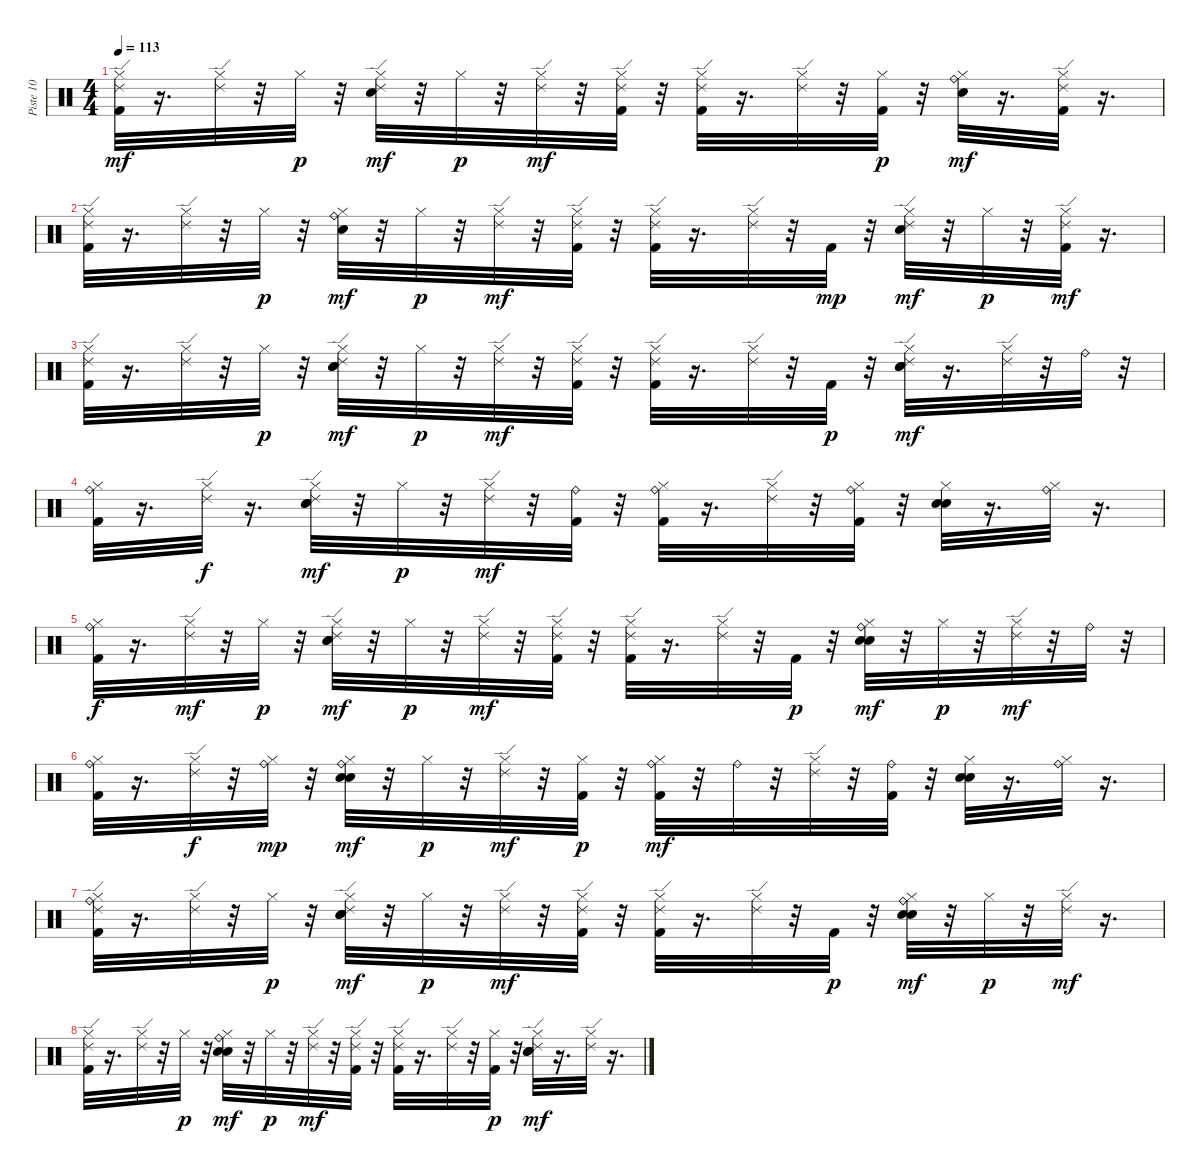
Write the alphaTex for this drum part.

\track ("Piste 10" "Piste 10") {instrument percussion}
\staff {score}
\articulation defaults
\ts (4 4)
\tempo 113
\clef neutral
\ks c
("Kick (hit) 2" "Hi-Hat (closed)" "Ride (edge) 2").32{dy mf} r.16{d} ("Hi-Hat (closed)" "Ride (edge) 2").32 r.32 "Hi-Hat (closed)".32{dy p} r.32 ("Electric Snare (hit)" "Hi-Hat (closed)" "Ride (edge) 2").32{dy mf} r.32 "Hi-Hat (closed)".32{dy p} r.32 ("Hi-Hat (closed)" "Ride (edge) 2").32{dy mf} r.32 ("Kick (hit) 2" "Hi-Hat (closed)" "Ride (edge) 2").32 r.32 ("Kick (hit) 2" "Hi-Hat (closed)" "Ride (edge) 2").32 r.16{d} ("Hi-Hat (closed)" "Ride (edge) 2").32 r.32 ("Kick (hit) 2" "Hi-Hat (closed)").32{dy p} r.32 ("Electric Snare (hit)" "Hi-Hat (closed)" "Ride (bell)").32{dy mf} r.16{d} ("Kick (hit) 2" "Hi-Hat (closed)" "Ride (edge) 2").32 r.16{d} |
("Kick (hit) 2" "Hi-Hat (closed)" "Ride (edge) 2").32 r.16{d} ("Hi-Hat (closed)" "Ride (edge) 2").32 r.32 "Hi-Hat (closed)".32{dy p} r.32 ("Electric Snare (hit)" "Hi-Hat (closed)" "Ride (bell)").32{dy mf} r.32 "Hi-Hat (closed)".32{dy p} r.32 ("Hi-Hat (closed)" "Ride (edge) 2").32{dy mf} r.32 ("Kick (hit) 2" "Hi-Hat (closed)" "Ride (edge) 2").32 r.32 ("Kick (hit) 2" "Hi-Hat (closed)" "Ride (edge) 2").32 r.16{d} ("Hi-Hat (closed)" "Ride (edge) 2").32 r.32 "Kick (hit) 2".32{dy mp} r.32 ("Electric Snare (hit)" "Hi-Hat (closed)" "Ride (edge) 2").32{dy mf} r.32 "Hi-Hat (closed)".32{dy p} r.32 ("Kick (hit) 2" "Hi-Hat (closed)" "Ride (edge) 2").32{dy mf} r.16{d} |
("Kick (hit) 2" "Hi-Hat (closed)" "Ride (edge) 2").32 r.16{d} ("Hi-Hat (closed)" "Ride (edge) 2").32 r.32 "Hi-Hat (closed)".32{dy p} r.32 ("Hand Clap (hit)" "Electric Snare (hit)" "Hi-Hat (closed)" "Ride (edge) 2").32{dy mf} r.32 "Hi-Hat (closed)".32{dy p} r.32 ("Hi-Hat (closed)" "Ride (edge) 2").32{dy mf} r.32 ("Kick (hit) 2" "Hi-Hat (closed)" "Ride (edge) 2").32 r.32 ("Kick (hit) 2" "Hi-Hat (closed)" "Ride (edge) 2").32 r.16{d} ("Hi-Hat (closed)" "Ride (edge) 2").32 r.32 "Kick (hit) 2".32{dy p} r.32 ("Hand Clap (hit)" "Electric Snare (hit)" "Hi-Hat (closed)" "Ride (edge) 2").32{dy mf} r.16{d} ("Hi-Hat (closed)" "Ride (edge) 2").32 r.32 "Ride (bell)".32 r.32 |
("Kick (hit) 2" "Hi-Hat (closed)" "Ride (bell)").32 r.16{d} ("Hi-Hat (closed)" "Ride (edge) 2").32{dy f} r.16{d} ("Hand Clap (hit)" "Electric Snare (hit)" "Hi-Hat (closed)" "Ride (edge) 2").32{dy mf} r.32 "Hi-Hat (closed)".32{dy p} r.32 ("Hi-Hat (closed)" "Ride (edge) 2").32{dy mf} r.32 ("Kick (hit) 2" "Ride (bell)").32 r.32 ("Kick (hit) 2" "Hi-Hat (closed)" "Ride (bell)").32 r.16{d} ("Hi-Hat (closed)" "Ride (edge) 2").32 r.32 ("Kick (hit) 2" "Hi-Hat (closed)" "Ride (bell)").32 r.32 ("Hand Clap (hit)" "Electric Snare (hit)" "Hi-Hat (closed)").32 r.16{d} ("Hi-Hat (closed)" "Ride (bell)").32 r.16{d} |
("Kick (hit) 2" "Hi-Hat (closed)" "Ride (bell)").32{dy f} r.16{d} ("Hi-Hat (closed)" "Ride (edge) 2").32{dy mf} r.32 "Hi-Hat (closed)".32{dy p} r.32 ("Hand Clap (hit)" "Electric Snare (hit)" "Hi-Hat (closed)" "Ride (edge) 2").32{dy mf} r.32 "Hi-Hat (closed)".32{dy p} r.32 ("Hi-Hat (closed)" "Ride (edge) 2").32{dy mf} r.32 ("Kick (hit) 2" "Hi-Hat (closed)" "Ride (edge) 2").32 r.32 ("Kick (hit) 2" "Hi-Hat (closed)" "Ride (edge) 2").32 r.16{d} ("Hi-Hat (closed)" "Ride (edge) 2").32 r.32 "Kick (hit) 2".32{dy p} r.32 ("Hand Clap (hit)" "Electric Snare (hit)" "Hi-Hat (closed)" "Ride (bell)").32{dy mf} r.32 "Hi-Hat (closed)".32{dy p} r.32 ("Hi-Hat (closed)" "Ride (edge) 2").32{dy mf} r.32 "Ride (bell)".32 r.32 |
("Kick (hit) 2" "Hi-Hat (closed)" "Ride (bell)").32 r.16{d} ("Hi-Hat (closed)" "Ride (edge) 2").32{dy f} r.32 ("Hi-Hat (closed)" "Ride (bell)").32{dy mp} r.32 ("Hand Clap (hit)" "Electric Snare (hit)" "Hi-Hat (closed)" "Ride (bell)").32{dy mf} r.32 "Hi-Hat (closed)".32{dy p} r.32 ("Hi-Hat (closed)" "Ride (edge) 2").32{dy mf} r.32 ("Kick (hit) 2" "Hi-Hat (closed)").32{dy p} r.32 ("Kick (hit) 2" "Hi-Hat (closed)" "Ride (bell)").32{dy mf} r.32 "Ride (bell)".32 r.32 ("Hi-Hat (closed)" "Ride (edge) 2").32 r.32 ("Kick (hit) 2" "Ride (bell)").32 r.32 ("Hand Clap (hit)" "Electric Snare (hit)" "Hi-Hat (closed)").32 r.16{d} ("Hi-Hat (closed)" "Ride (bell)").32 r.16{d} |
("Kick (hit) 2" "Hi-Hat (closed)" "Ride (bell)" "Ride (edge) 2").32 r.16{d} ("Hi-Hat (closed)" "Ride (edge) 2").32 r.32 "Hi-Hat (closed)".32{dy p} r.32 ("Hand Clap (hit)" "Electric Snare (hit)" "Hi-Hat (closed)" "Ride (edge) 2").32{dy mf} r.32 "Hi-Hat (closed)".32{dy p} r.32 ("Hi-Hat (closed)" "Ride (edge) 2").32{dy mf} r.32 ("Kick (hit) 2" "Hi-Hat (closed)" "Ride (edge) 2").32 r.32 ("Kick (hit) 2" "Hi-Hat (closed)" "Ride (edge) 2").32 r.16{d} ("Hi-Hat (closed)" "Ride (edge) 2").32 r.32 "Kick (hit) 2".32{dy p} r.32 ("Hand Clap (hit)" "Electric Snare (hit)" "Hi-Hat (closed)" "Ride (bell)").32{dy mf} r.32 "Hi-Hat (closed)".32{dy p} r.32 ("Hi-Hat (closed)" "Ride (edge) 2").32{dy mf} r.16{d} |
("Kick (hit) 2" "Hi-Hat (closed)" "Ride (edge) 2").32 r.16{d} ("Hi-Hat (closed)" "Ride (edge) 2").32 r.32 "Hi-Hat (closed)".32{dy p} r.32 ("Hand Clap (hit)" "Electric Snare (hit)" "Hi-Hat (closed)" "Ride (bell)").32{dy mf} r.32 "Hi-Hat (closed)".32{dy p} r.32 ("Hi-Hat (closed)" "Ride (edge) 2").32{dy mf} r.32 ("Kick (hit) 2" "Hi-Hat (closed)" "Ride (edge) 2").32 r.32 ("Kick (hit) 2" "Hi-Hat (closed)" "Ride (edge) 2").32 r.16{d} ("Hi-Hat (closed)" "Ride (edge) 2").32 r.32 ("Kick (hit) 2" "Hi-Hat (closed)").32{dy p} r.32 ("Hand Clap (hit)" "Electric Snare (hit)" "Hi-Hat (closed)" "Ride (edge) 2").32{dy mf} r.16{d} ("Hi-Hat (closed)" "Ride (edge) 2").32 r.16{d}
